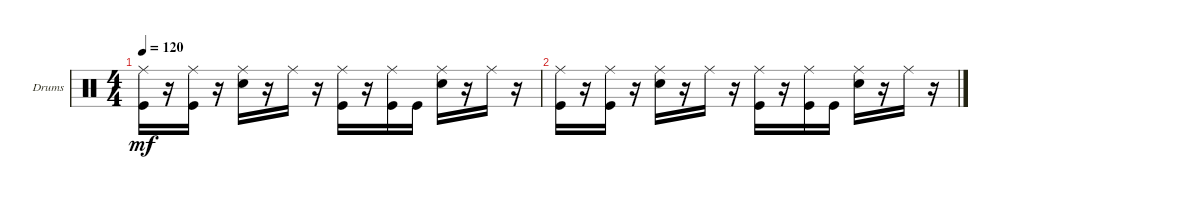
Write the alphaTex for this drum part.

\defaultSystemsLayout 4
\bracketExtendMode groupsimilarinstruments
\firstSystemTrackNameOrientation horizontal
\otherSystemsTrackNameOrientation horizontal
\track ("Drumkit" "Drums") {instrument percussion}
\staff {score}
\articulation defaults
\ts (4 4)
\tempo 120
\clef neutral
\ks c
("Ride (middle)" "Kick (hit)").16{dy mf} r.16 ("Ride (middle)" "Kick (hit)").16 r.16 ("Ride (middle)" "Snare (hit) 2").16 r.16 "Ride (middle)".16 r.16 ("Ride (middle)" "Kick (hit)").16 r.16 ("Ride (middle)" "Kick (hit)").16 "Kick (hit)".16 ("Ride (middle)" "Snare (hit) 2").16 r.16 "Ride (middle)".16 r.16 |
("Ride (middle)" "Kick (hit)").16 r.16 ("Ride (middle)" "Kick (hit)").16 r.16 ("Ride (middle)" "Snare (hit) 2").16 r.16 "Ride (middle)".16 r.16 ("Ride (middle)" "Kick (hit)").16 r.16 ("Ride (middle)" "Kick (hit)").16 "Kick (hit)".16 ("Ride (middle)" "Snare (hit) 2").16 r.16 "Ride (middle)".16 r.16
